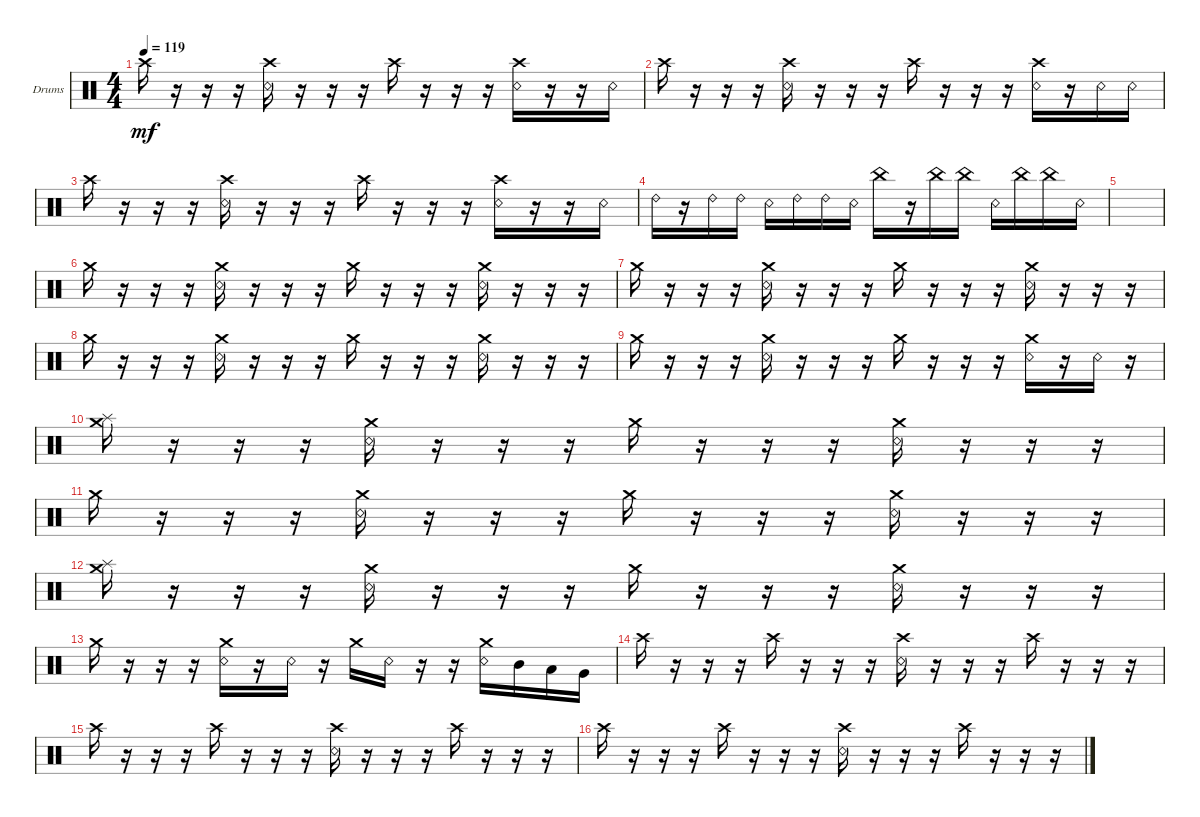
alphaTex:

\defaultSystemsLayout 4
\bracketExtendMode groupsimilarinstruments
\firstSystemTrackNameOrientation horizontal
\otherSystemsTrackNameOrientation horizontal
\track ("Drumkit" "Drums") {instrument percussion}
\staff {score}
\articulation defaults
\ts (4 4)
\tempo 119
\clef neutral
\scale
0.333333
\ks c "Crash high (hit)".16{dy mf}
r.16 r.16 r.16 ("Snare (rim shot)" "Crash high (hit)").16 r.16 r.16 r.16 "Crash high (hit)".16 r.16 r.16 r.16 ("Snare (rim shot)" "Crash high (hit)").16 r.16 r.16 "Snare (rim shot)".16 |
\scale
0.333333 "Crash high (hit)".16 r.16 r.16 r.16 ("Snare (rim shot)" "Crash high (hit)").16 r.16 r.16 r.16 "Crash high (hit)".16 r.16 r.16 r.16 ("Snare (rim shot)" "Crash high (hit)").16 r.16 "Snare (rim shot)".16 "Snare (rim shot)".16 |
\scale
0.333333 "Crash high (hit)".16 r.16 r.16 r.16 ("Snare (rim shot)" "Crash high (hit)").16 r.16 r.16 r.16 "Crash high (hit)".16 r.16 r.16 r.16 ("Snare (rim shot)" "Crash high (hit)").16 r.16 r.16 "Snare (rim shot)".16 |
\scale
0.333333 "Ride (bell) 2".16 r.16 "Ride (bell) 2".16 "Ride (bell) 2".16 "Snare (rim shot)".16 "Ride (bell) 2".16 "Ride (bell) 2".16 "Snare (rim shot)".16 "China (hit)".16 r.16 "China (hit)".16 "China (hit)".16 "Snare (rim shot)".16 "China (hit)".16 "China (hit)".16 "Snare (rim shot)".16 |
\scale
0.333333 |
\scale
0.333333 "Crash medium (hit)".16 r.16 r.16 r.16 ("Snare (rim shot)" "Crash medium (hit)").16 r.16 r.16 r.16 "Crash medium (hit)".16 r.16 r.16 r.16 ("Snare (rim shot)" "Crash medium (hit)").16 r.16 r.16 r.16 |
\scale
0.333333 "Crash medium (hit)".16 r.16 r.16 r.16 ("Snare (rim shot)" "Crash medium (hit)").16 r.16 r.16 r.16 "Crash medium (hit)".16 r.16 r.16 r.16 ("Snare (rim shot)" "Crash medium (hit)").16 r.16 r.16 r.16 |
\scale
0.333333 "Crash medium (hit)".16 r.16 r.16 r.16 ("Snare (rim shot)" "Crash medium (hit)").16 r.16 r.16 r.16 "Crash medium (hit)".16 r.16 r.16 r.16 ("Snare (rim shot)" "Crash medium (hit)").16 r.16 r.16 r.16 |
\scale
0.333333 "Crash medium (hit)".16 r.16 r.16 r.16 ("Snare (rim shot)" "Crash medium (hit)").16 r.16 r.16 r.16 "Crash medium (hit)".16 r.16 r.16 r.16 ("Snare (rim shot)" "Crash medium (hit)").16 r.16 "Snare (rim shot)".16 r.16 |
\scale
0.333333 ("Splash (hit)" "Crash medium (hit)").16 r.16 r.16 r.16 ("Snare (rim shot)" "Crash medium (hit)").16 r.16 r.16 r.16 "Crash medium (hit)".16 r.16 r.16 r.16 ("Snare (rim shot)" "Crash medium (hit)").16 r.16 r.16 r.16 |
\scale
0.333333 "Crash medium (hit)".16 r.16 r.16 r.16 ("Snare (rim shot)" "Crash medium (hit)").16 r.16 r.16 r.16 "Crash medium (hit)".16 r.16 r.16 r.16 ("Snare (rim shot)" "Crash medium (hit)").16 r.16 r.16 r.16 |
\scale
0.333333 ("Splash (hit)" "Crash medium (hit)").16 r.16 r.16 r.16 ("Snare (rim shot)" "Crash medium (hit)").16 r.16 r.16 r.16 "Crash medium (hit)".16 r.16 r.16 r.16 ("Snare (rim shot)" "Crash medium (hit)").16 r.16 r.16 r.16 |
\scale
0.333333 "Crash medium (hit)".16 r.16 r.16 r.16 ("Snare (rim shot)" "Crash medium (hit)").16 r.16 "Snare (rim shot)".16 r.16 "Crash medium (hit)".16 "Snare (rim shot)".16 r.16 r.16 ("Snare (rim shot)" "Crash medium (hit)").16 "Mid Tom (hit)".16 "Low Tom (hit)".16 "Very Low Tom (hit)".16 |
\scale
0.333333 "Crash high (hit)".16 r.16 r.16 r.16 "Crash high (hit)".16 r.16 r.16 r.16 ("Snare (rim shot)" "Crash high (hit)").16 r.16 r.16 r.16 "Crash high (hit)".16 r.16 r.16 r.16 |
\scale
0.333333 "Crash high (hit)".16 r.16 r.16 r.16 "Crash high (hit)".16 r.16 r.16 r.16 ("Snare (rim shot)" "Crash high (hit)").16 r.16 r.16 r.16 "Crash high (hit)".16 r.16 r.16 r.16 |
\scale
0.333333 "Crash high (hit)".16 r.16 r.16 r.16 "Crash high (hit)".16 r.16 r.16 r.16 ("Snare (rim shot)" "Crash high (hit)").16 r.16 r.16 r.16 "Crash high (hit)".16 r.16 r.16 r.16
